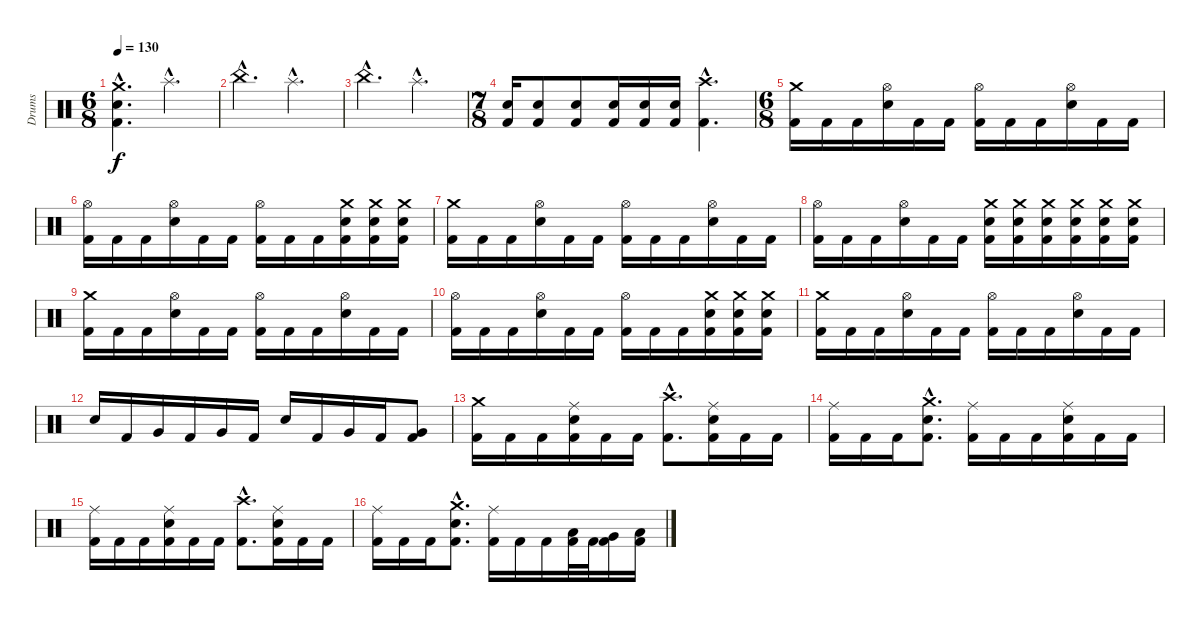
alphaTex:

\track ("Drums" "Drums") {instrument percussion}
\staff {score}
\articulation defaults
\ts (6 8)
\section ("" "")
\tempo 130
\clef neutral
\ks c
("Crash medium (hit)"{hac} "Electric Snare (hit)"{hac} "Kick (hit) 2"{hac}).4{d dy f} "Splash (hit)"{hac}.4{d} |
"China (hit)"{hac}.4{d} "Splash (hit)"{hac}.4{d} |
"China (hit)"{hac}.4{d} "Splash (hit)"{hac}.4{d} |
\ts (7 8)
("Electric Snare (hit)" "Kick (hit) 2").16 ("Electric Snare (hit)" "Kick (hit) 2").8 ("Electric Snare (hit)" "Kick (hit) 2").8 ("Electric Snare (hit)" "Kick (hit) 2").16 ("Electric Snare (hit)" "Kick (hit) 2").16 ("Electric Snare (hit)" "Kick (hit) 2").16 ("Crash high (hit)"{hac} "Kick (hit) 2"{hac}).4{d} |
\ts (6 8)
\section ("" "")
("Crash medium (hit)" "Kick (hit) 2").16 "Kick (hit) 2".16 "Kick (hit) 2".16 ("Hi-Hat (open)" "Electric Snare (hit)").16 "Kick (hit) 2".16 "Kick (hit) 2".16 ("Hi-Hat (open)" "Kick (hit) 2").16 "Kick (hit) 2".16 "Kick (hit) 2".16 ("Hi-Hat (open)" "Electric Snare (hit)").16 "Kick (hit) 2".16 "Kick (hit) 2".16 |
("Hi-Hat (open)" "Kick (hit) 2").16 "Kick (hit) 2".16 "Kick (hit) 2".16 ("Hi-Hat (open)" "Electric Snare (hit)").16 "Kick (hit) 2".16 "Kick (hit) 2".16 ("Hi-Hat (open)" "Kick (hit) 2").16 "Kick (hit) 2".16 "Kick (hit) 2".16 ("Crash medium (hit)" "Electric Snare (hit)" "Kick (hit) 2").16 ("Crash medium (hit)" "Electric Snare (hit)" "Kick (hit) 2").16 ("Crash medium (hit)" "Electric Snare (hit)" "Kick (hit) 2").16 |
("Crash medium (hit)" "Kick (hit) 2").16 "Kick (hit) 2".16 "Kick (hit) 2".16 ("Hi-Hat (open)" "Electric Snare (hit)").16 "Kick (hit) 2".16 "Kick (hit) 2".16 ("Hi-Hat (open)" "Kick (hit) 2").16 "Kick (hit) 2".16 "Kick (hit) 2".16 ("Hi-Hat (open)" "Electric Snare (hit)").16 "Kick (hit) 2".16 "Kick (hit) 2".16 |
("Hi-Hat (open)" "Kick (hit) 2").16 "Kick (hit) 2".16 "Kick (hit) 2".16 ("Hi-Hat (open)" "Electric Snare (hit)").16 "Kick (hit) 2".16 "Kick (hit) 2".16 ("Crash medium (hit)" "Electric Snare (hit)" "Kick (hit) 2").16 ("Crash medium (hit)" "Electric Snare (hit)" "Kick (hit) 2").16 ("Crash medium (hit)" "Electric Snare (hit)" "Kick (hit) 2").16 ("Crash medium (hit)" "Electric Snare (hit)" "Kick (hit) 2").16 ("Crash medium (hit)" "Electric Snare (hit)" "Kick (hit) 2").16 ("Crash medium (hit)" "Electric Snare (hit)" "Kick (hit) 2").16 |
("Crash medium (hit)" "Kick (hit) 2").16 "Kick (hit) 2".16 "Kick (hit) 2".16 ("Hi-Hat (open)" "Electric Snare (hit)").16 "Kick (hit) 2".16 "Kick (hit) 2".16 ("Hi-Hat (open)" "Kick (hit) 2").16 "Kick (hit) 2".16 "Kick (hit) 2".16 ("Hi-Hat (open)" "Electric Snare (hit)").16 "Kick (hit) 2".16 "Kick (hit) 2".16 |
("Hi-Hat (open)" "Kick (hit) 2").16 "Kick (hit) 2".16 "Kick (hit) 2".16 ("Hi-Hat (open)" "Electric Snare (hit)").16 "Kick (hit) 2".16 "Kick (hit) 2".16 ("Hi-Hat (open)" "Kick (hit) 2").16 "Kick (hit) 2".16 "Kick (hit) 2".16 ("Crash medium (hit)" "Electric Snare (hit)" "Kick (hit) 2").16 ("Crash medium (hit)" "Electric Snare (hit)" "Kick (hit) 2").16 ("Crash medium (hit)" "Electric Snare (hit)" "Kick (hit) 2").16 |
("Crash medium (hit)" "Kick (hit) 2").16 "Kick (hit) 2".16 "Kick (hit) 2".16 ("Hi-Hat (open)" "Electric Snare (hit)").16 "Kick (hit) 2".16 "Kick (hit) 2".16 ("Hi-Hat (open)" "Kick (hit) 2").16 "Kick (hit) 2".16 "Kick (hit) 2".16 ("Hi-Hat (open)" "Electric Snare (hit)").16 "Kick (hit) 2".16 "Kick (hit) 2".16 |
"Electric Snare (hit)".16 "Kick (hit) 2".16 "Very Low Tom (hit)".16 "Kick (hit) 2".16 "Very Low Tom (hit)".16 "Kick (hit) 2".16 "Electric Snare (hit)".16 "Kick (hit) 2".16 "Very Low Tom (hit)".16 "Kick (hit) 2".16 ("Very Low Tom (hit)" "Kick (hit) 2").8 |
\section ("" "")
("Crash medium (hit)" "Kick (hit) 2").16 "Kick (hit) 2".16 "Kick (hit) 2".16 ("Ride (middle)" "Electric Snare (hit)" "Kick (hit) 2").16 "Kick (hit) 2".16 "Kick (hit) 2".16 ("Crash high (hit)"{hac} "Kick (hit) 2"{hac}).8{d} ("Ride (middle)" "Electric Snare (hit)" "Kick (hit) 2").16 "Kick (hit) 2".16 "Kick (hit) 2".16 |
("Ride (middle)" "Kick (hit) 2").16 "Kick (hit) 2".16 "Kick (hit) 2".16 ("Crash medium (hit)"{hac} "Electric Snare (hit)"{hac} "Kick (hit) 2"{hac}).8{d} ("Ride (middle)" "Kick (hit) 2").16 "Kick (hit) 2".16 "Kick (hit) 2".16 ("Ride (middle)" "Electric Snare (hit)" "Kick (hit) 2").16 "Kick (hit) 2".16 "Kick (hit) 2".16 |
("Ride (middle)" "Kick (hit) 2").16 "Kick (hit) 2".16 "Kick (hit) 2".16 ("Ride (middle)" "Electric Snare (hit)" "Kick (hit) 2").16 "Kick (hit) 2".16 "Kick (hit) 2".16 ("Crash high (hit)"{hac} "Kick (hit) 2"{hac}).8{d} ("Ride (middle)" "Electric Snare (hit)" "Kick (hit) 2").16 "Kick (hit) 2".16 "Kick (hit) 2".16 |
("Ride (middle)" "Kick (hit) 2").16 "Kick (hit) 2".16 "Kick (hit) 2".16 ("Crash medium (hit)"{hac} "Electric Snare (hit)"{hac} "Kick (hit) 2"{hac}).8{d} ("Ride (middle)" "Kick (hit) 2").16 "Kick (hit) 2".16 "Kick (hit) 2".16 ("Low Tom (hit)" "Kick (hit) 2").32 "Kick (hit) 2".32 ("Very Low Tom (hit)" "Kick (hit) 2").16 ("Low Floor Tom (hit)" "Kick (hit) 2").16
